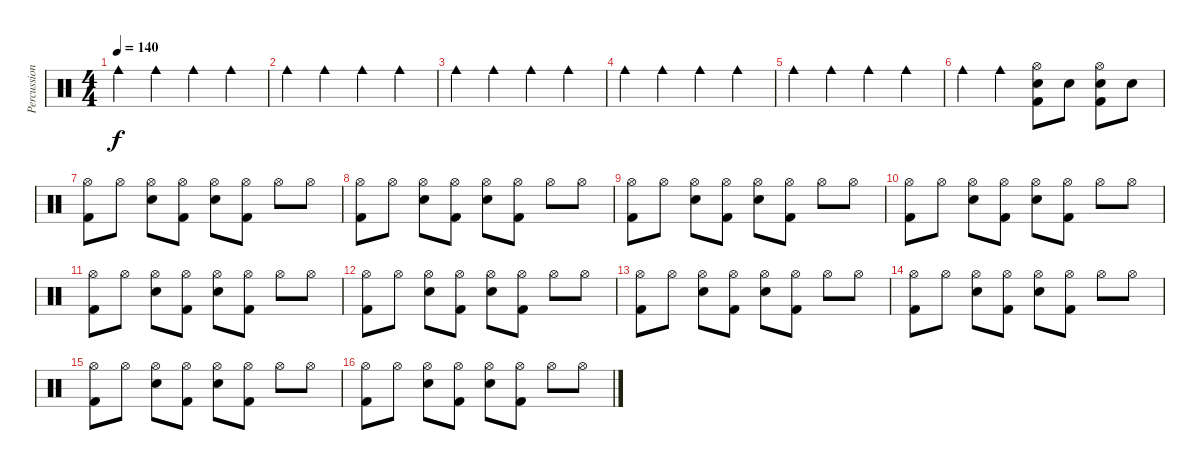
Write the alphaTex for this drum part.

\track ("Percussion" "Percussion") {instrument percussion}
\staff {score}
\articulation defaults
\ts (4 4)
\tempo 140
\clef neutral
\ks c "Cowbell medium (hit)".4{dy f} "Cowbell medium (hit)".4 "Cowbell medium (hit)".4 "Cowbell medium (hit)".4
|
"Cowbell medium (hit)".4 "Cowbell medium (hit)".4 "Cowbell medium (hit)".4 "Cowbell medium (hit)".4 |
"Cowbell medium (hit)".4 "Cowbell medium (hit)".4 "Cowbell medium (hit)".4 "Cowbell medium (hit)".4 |
"Cowbell medium (hit)".4 "Cowbell medium (hit)".4 "Cowbell medium (hit)".4 "Cowbell medium (hit)".4 |
"Cowbell medium (hit)".4 "Cowbell medium (hit)".4 "Cowbell medium (hit)".4 "Cowbell medium (hit)".4 |
"Cowbell medium (hit)".4 "Cowbell medium (hit)".4 ("Hi-Hat (open)" "Snare (hit) 2" "Kick (hit) 2").8 "Snare (hit) 2".8 ("Hi-Hat (open)" "Snare (hit) 2" "Kick (hit) 2").8 "Snare (hit) 2".8 |
("Hi-Hat (open)" "Kick (hit) 2").8 "Hi-Hat (open)".8 ("Hi-Hat (open)" "Snare (hit) 2").8 ("Hi-Hat (open)" "Kick (hit) 2").8 ("Hi-Hat (open)" "Snare (hit) 2").8 ("Hi-Hat (open)" "Kick (hit) 2").8 "Hi-Hat (open)".8 "Hi-Hat (open)".8 |
("Hi-Hat (open)" "Kick (hit) 2").8 "Hi-Hat (open)".8 ("Hi-Hat (open)" "Snare (hit) 2").8 ("Hi-Hat (open)" "Kick (hit) 2").8 ("Hi-Hat (open)" "Snare (hit) 2").8 ("Hi-Hat (open)" "Kick (hit) 2").8 "Hi-Hat (open)".8 "Hi-Hat (open)".8 |
("Hi-Hat (open)" "Kick (hit) 2").8 "Hi-Hat (open)".8 ("Hi-Hat (open)" "Snare (hit) 2").8 ("Hi-Hat (open)" "Kick (hit) 2").8 ("Hi-Hat (open)" "Snare (hit) 2").8 ("Hi-Hat (open)" "Kick (hit) 2").8 "Hi-Hat (open)".8 "Hi-Hat (open)".8 |
("Hi-Hat (open)" "Kick (hit) 2").8 "Hi-Hat (open)".8 ("Hi-Hat (open)" "Snare (hit) 2").8 ("Hi-Hat (open)" "Kick (hit) 2").8 ("Hi-Hat (open)" "Snare (hit) 2").8 ("Hi-Hat (open)" "Kick (hit) 2").8 "Hi-Hat (open)".8 "Hi-Hat (open)".8 |
("Hi-Hat (open)" "Kick (hit) 2").8 "Hi-Hat (open)".8 ("Hi-Hat (open)" "Snare (hit) 2").8 ("Hi-Hat (open)" "Kick (hit) 2").8 ("Hi-Hat (open)" "Snare (hit) 2").8 ("Hi-Hat (open)" "Kick (hit) 2").8 "Hi-Hat (open)".8 "Hi-Hat (open)".8 |
("Hi-Hat (open)" "Kick (hit) 2").8 "Hi-Hat (open)".8 ("Hi-Hat (open)" "Snare (hit) 2").8 ("Hi-Hat (open)" "Kick (hit) 2").8 ("Hi-Hat (open)" "Snare (hit) 2").8 ("Hi-Hat (open)" "Kick (hit) 2").8 "Hi-Hat (open)".8 "Hi-Hat (open)".8 |
("Hi-Hat (open)" "Kick (hit) 2").8 "Hi-Hat (open)".8 ("Hi-Hat (open)" "Snare (hit) 2").8 ("Hi-Hat (open)" "Kick (hit) 2").8 ("Hi-Hat (open)" "Snare (hit) 2").8 ("Hi-Hat (open)" "Kick (hit) 2").8 "Hi-Hat (open)".8 "Hi-Hat (open)".8 |
("Hi-Hat (open)" "Kick (hit) 2").8 "Hi-Hat (open)".8 ("Hi-Hat (open)" "Snare (hit) 2").8 ("Hi-Hat (open)" "Kick (hit) 2").8 ("Hi-Hat (open)" "Snare (hit) 2").8 ("Hi-Hat (open)" "Kick (hit) 2").8 "Hi-Hat (open)".8 "Hi-Hat (open)".8 |
("Hi-Hat (open)" "Kick (hit) 2").8 "Hi-Hat (open)".8 ("Hi-Hat (open)" "Snare (hit) 2").8 ("Hi-Hat (open)" "Kick (hit) 2").8 ("Hi-Hat (open)" "Snare (hit) 2").8 ("Hi-Hat (open)" "Kick (hit) 2").8 "Hi-Hat (open)".8 "Hi-Hat (open)".8 |
("Hi-Hat (open)" "Kick (hit) 2").8 "Hi-Hat (open)".8 ("Hi-Hat (open)" "Snare (hit) 2").8 ("Hi-Hat (open)" "Kick (hit) 2").8 ("Hi-Hat (open)" "Snare (hit) 2").8 ("Hi-Hat (open)" "Kick (hit) 2").8 "Hi-Hat (open)".8 "Hi-Hat (open)".8
